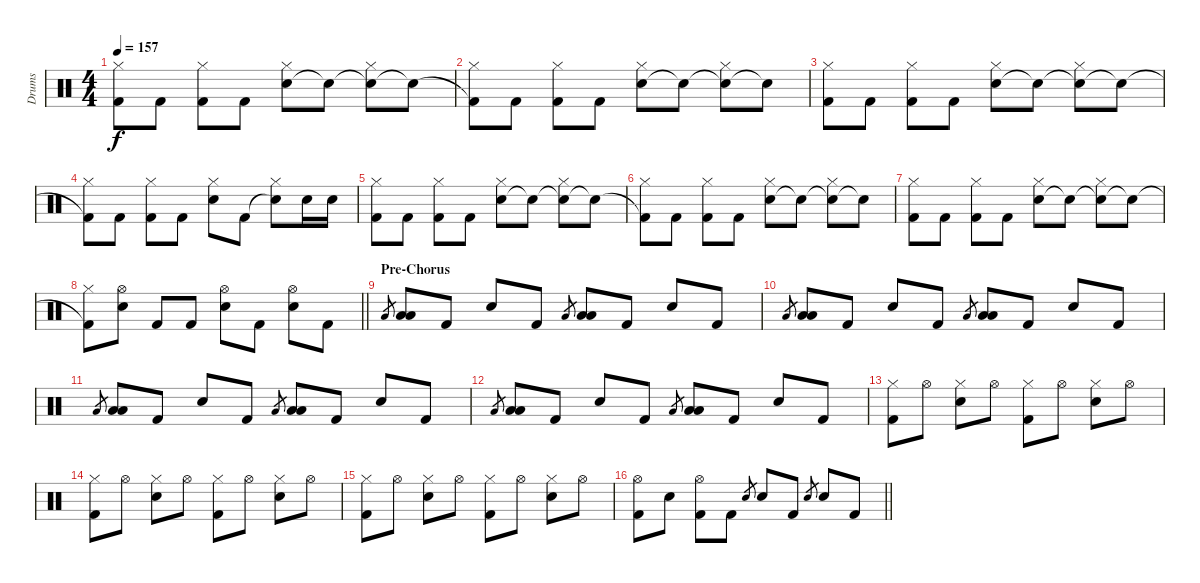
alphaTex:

\track ("Drums" "Drums") {instrument percussion}
\staff {score}
\articulation defaults
\ts (4 4)
\tempo 157
\clef neutral
\ks c
("Kick (hit) 2" "Hi-Hat (closed)").8{dy f} "Kick (hit) 2".8 ("Kick (hit) 2" "Hi-Hat (closed)").8 "Kick (hit) 2".8 ("Electric Snare (hit)" "Hi-Hat (closed)").8 "Snare (hit)"{t}.8 ("Snare (hit)"{t} "Hi-Hat (closed)").8 "Snare (hit)"{t}.8 |
("Kick (hit) 2"{t} "Hi-Hat (closed)").8 "Kick (hit) 2".8 ("Kick (hit) 2" "Hi-Hat (closed)").8 "Kick (hit) 2".8 ("Electric Snare (hit)" "Hi-Hat (closed)").8 "Electric Snare (hit)"{t}.8 ("Snare (hit)"{t} "Hi-Hat (closed)").8 "Snare (hit)"{t}.8 |
("Kick (hit) 2" "Hi-Hat (closed)").8 "Kick (hit) 2".8 ("Kick (hit) 2" "Hi-Hat (closed)").8 "Kick (hit) 2".8 ("Electric Snare (hit)" "Hi-Hat (closed)").8 "Snare (hit)"{t}.8 ("Snare (hit)"{t} "Hi-Hat (closed)").8 "Snare (hit)"{t}.8 |
("Kick (hit) 2"{t} "Hi-Hat (closed)").8 "Kick (hit) 2".8 ("Kick (hit) 2" "Hi-Hat (closed)").8 "Kick (hit) 2".8 ("Electric Snare (hit)" "Hi-Hat (closed)").8 "Kick (hit) 2".8 ("Snare (hit)"{t} "Hi-Hat (closed)").8 "Electric Snare (hit)".16 "Electric Snare (hit)".16 |
("Kick (hit) 2" "Hi-Hat (closed)").8 "Kick (hit) 2".8 ("Kick (hit) 2" "Hi-Hat (closed)").8 "Kick (hit) 2".8 ("Electric Snare (hit)" "Hi-Hat (closed)").8 "Snare (hit)"{t}.8 ("Snare (hit)"{t} "Hi-Hat (closed)").8 "Snare (hit)"{t}.8 |
("Kick (hit) 2"{t} "Hi-Hat (closed)").8 "Kick (hit) 2".8 ("Kick (hit) 2" "Hi-Hat (closed)").8 "Kick (hit) 2".8 ("Electric Snare (hit)" "Hi-Hat (closed)").8 "Electric Snare (hit)"{t}.8 ("Snare (hit)"{t} "Hi-Hat (closed)").8 "Snare (hit)"{t}.8 |
("Kick (hit) 2" "Hi-Hat (closed)").8 "Kick (hit) 2".8 ("Kick (hit) 2" "Hi-Hat (closed)").8 "Kick (hit) 2".8 ("Electric Snare (hit)" "Hi-Hat (closed)").8 "Snare (hit)"{t}.8 ("Snare (hit)"{t} "Hi-Hat (closed)").8 "Snare (hit)"{t}.8 |
\barLineRight lightlight
("Kick (hit) 2"{t} "Hi-Hat (closed)").8 ("Electric Snare (hit)" "Hi-Hat (open)").8 "Kick (hit) 2".8 "Kick (hit) 2".8 ("Electric Snare (hit)" "Hi-Hat (open)").8 "Kick (hit) 2".8 ("Electric Snare (hit)" "Hi-Hat (open)").8 "Kick (hit) 2".8 |
\section ("" "Pre-Chorus")
"Low Tom (hit)".8{gr} ("Low Tom (hit)" "Low Floor Tom (hit)").8 "Kick (hit) 2".8 "Electric Snare (hit)".8 "Kick (hit) 2".8 "Low Tom (hit)".8{gr} ("Low Tom (hit)" "Low Floor Tom (hit)").8 "Kick (hit) 2".8 "Electric Snare (hit)".8 "Kick (hit) 2".8 |
"Low Tom (hit)".8{gr} ("Low Tom (hit)" "Low Floor Tom (hit)").8 "Kick (hit) 2".8 "Electric Snare (hit)".8 "Kick (hit) 2".8 "Low Tom (hit)".8{gr} ("Low Tom (hit)" "Low Floor Tom (hit)").8 "Kick (hit) 2".8 "Electric Snare (hit)".8 "Kick (hit) 2".8 |
"Low Tom (hit)".8{gr} ("Low Tom (hit)" "Low Floor Tom (hit)").8 "Kick (hit) 2".8 "Electric Snare (hit)".8 "Kick (hit) 2".8 "Low Tom (hit)".8{gr} ("Low Tom (hit)" "Low Floor Tom (hit)").8 "Kick (hit) 2".8 "Electric Snare (hit)".8 "Kick (hit) 2".8 |
"Low Tom (hit)".8{gr} ("Low Tom (hit)" "Low Floor Tom (hit)").8 "Kick (hit) 2".8 "Electric Snare (hit)".8 "Kick (hit) 2".8 "Low Tom (hit)".8{gr} ("Low Tom (hit)" "Low Floor Tom (hit)").8 "Kick (hit) 2".8 "Electric Snare (hit)".8 "Kick (hit) 2".8 |
("Kick (hit) 2" "Hi-Hat (closed)").8 "Hi-Hat (open)".8 ("Electric Snare (hit)" "Hi-Hat (closed)").8 "Hi-Hat (open)".8 ("Kick (hit) 2" "Hi-Hat (closed)").8 "Hi-Hat (open)".8 ("Electric Snare (hit)" "Hi-Hat (closed)").8 "Hi-Hat (open)".8 |
("Kick (hit) 2" "Hi-Hat (closed)").8 "Hi-Hat (open)".8 ("Electric Snare (hit)" "Hi-Hat (closed)").8 "Hi-Hat (open)".8 ("Kick (hit) 2" "Hi-Hat (closed)").8 "Hi-Hat (open)".8 ("Electric Snare (hit)" "Hi-Hat (closed)").8 "Hi-Hat (open)".8 |
("Kick (hit) 2" "Hi-Hat (closed)").8 "Hi-Hat (open)".8 ("Electric Snare (hit)" "Hi-Hat (closed)").8 "Hi-Hat (open)".8 ("Kick (hit) 2" "Hi-Hat (closed)").8 "Hi-Hat (open)".8 ("Electric Snare (hit)" "Hi-Hat (closed)").8 "Hi-Hat (open)".8 |
\barLineRight lightlight
("Kick (hit) 2" "Hi-Hat (open)").8 "Electric Snare (hit)".8 ("Kick (hit) 2" "Hi-Hat (open)").8 "Kick (hit) 2".8 "Electric Snare (hit)".8{gr} "Electric Snare (hit)".8 "Kick (hit) 2".8 "Electric Snare (hit)".8{gr} "Electric Snare (hit)".8 "Kick (hit) 2".8
